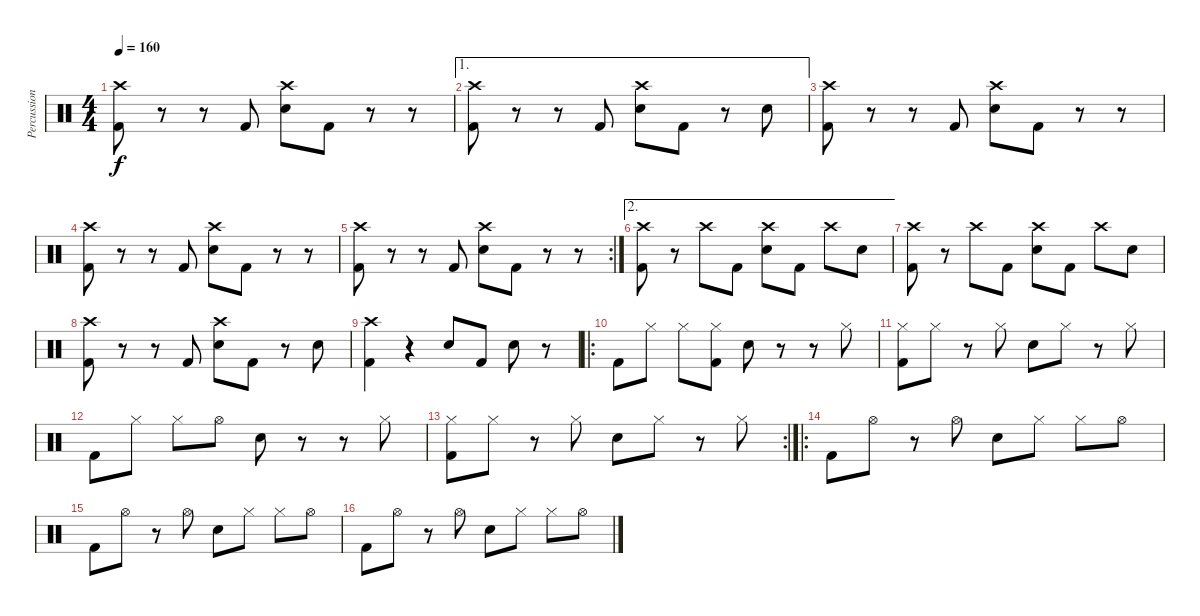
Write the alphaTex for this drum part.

\track ("Percussion" "Percussion") {instrument percussion}
\staff {score}
\articulation defaults
\ts (4 4)
\tempo 160
\clef neutral
\ks c
("Crash high (hit)" "Kick (hit) 2").8{dy f} r.8 r.8 "Kick (hit) 2".8 ("Crash high (hit)" "Snare (hit) 2").8 "Kick (hit) 2".8 r.8 r.8 |
\ae 1
("Crash high (hit)" "Kick (hit) 2").8 r.8 r.8 "Kick (hit) 2".8 ("Crash high (hit)" "Snare (hit) 2").8 "Kick (hit) 2".8 r.8 "Snare (hit) 2".8 |
("Crash high (hit)" "Kick (hit) 2").8 r.8 r.8 "Kick (hit) 2".8 ("Crash high (hit)" "Snare (hit) 2").8 "Kick (hit) 2".8 r.8 r.8 |
("Crash high (hit)" "Kick (hit) 2").8 r.8 r.8 "Kick (hit) 2".8 ("Crash high (hit)" "Snare (hit) 2").8 "Kick (hit) 2".8 r.8 r.8 |
\rc 2
("Crash high (hit)" "Kick (hit) 2").8 r.8 r.8 "Kick (hit) 2".8 ("Crash high (hit)" "Snare (hit) 2").8 "Kick (hit) 2".8 r.8 r.8 |
\ae 2
("Crash high (hit)" "Kick (hit) 2").8 r.8 "Crash high (hit)".8 "Kick (hit) 2".8 ("Crash high (hit)" "Snare (hit) 2").8 "Kick (hit) 2".8 "Crash high (hit)".8 "Snare (hit) 2".8 |
("Crash high (hit)" "Kick (hit) 2").8 r.8 "Crash high (hit)".8 "Kick (hit) 2".8 ("Crash high (hit)" "Snare (hit) 2").8 "Kick (hit) 2".8 "Crash high (hit)".8 "Snare (hit) 2".8 |
("Crash high (hit)" "Kick (hit) 2").8 r.8 r.8 "Kick (hit) 2".8 ("Crash high (hit)" "Snare (hit) 2").8 "Kick (hit) 2".8 r.8 "Snare (hit) 2".8 |
("Crash high (hit)" "Kick (hit) 2").4 r.4 "Snare (hit) 2".8 "Kick (hit) 2".8 "Snare (hit) 2".8 r.8 |
\ro "Kick (hit) 2".8 "Hi-Hat (closed)".8 "Hi-Hat (closed)".8
("Hi-Hat (closed)" "Kick (hit) 2").8 "Snare (hit) 2".8 r.8 r.8 "Hi-Hat (closed)".8 |
("Hi-Hat (closed)" "Kick (hit) 2").8 "Hi-Hat (closed)".8 r.8 "Hi-Hat (closed)".8 "Snare (hit) 2".8 "Hi-Hat (closed)".8 r.8 "Hi-Hat (closed)".8 |
"Kick (hit) 2".8 "Hi-Hat (closed)".8 "Hi-Hat (closed)".8 "Hi-Hat (open)".8 "Snare (hit) 2".8 r.8 r.8 "Hi-Hat (closed)".8 |
\rc 2
("Hi-Hat (closed)" "Kick (hit) 2").8 "Hi-Hat (closed)".8 r.8 "Hi-Hat (closed)".8 "Snare (hit) 2".8 "Hi-Hat (closed)".8 r.8 "Hi-Hat (closed)".8 |
\ro "Kick (hit) 2".8 "Hi-Hat (open)".8
r.8 "Hi-Hat (open)".8 "Snare (hit) 2".8 "Hi-Hat (closed)".8 "Hi-Hat (closed)".8 "Hi-Hat (open)".8 |
"Kick (hit) 2".8 "Hi-Hat (open)".8 r.8 "Hi-Hat (open)".8 "Snare (hit) 2".8 "Hi-Hat (closed)".8 "Hi-Hat (closed)".8 "Hi-Hat (open)".8 |
"Kick (hit) 2".8 "Hi-Hat (open)".8 r.8 "Hi-Hat (open)".8 "Snare (hit) 2".8 "Hi-Hat (closed)".8 "Hi-Hat (closed)".8 "Hi-Hat (open)".8
